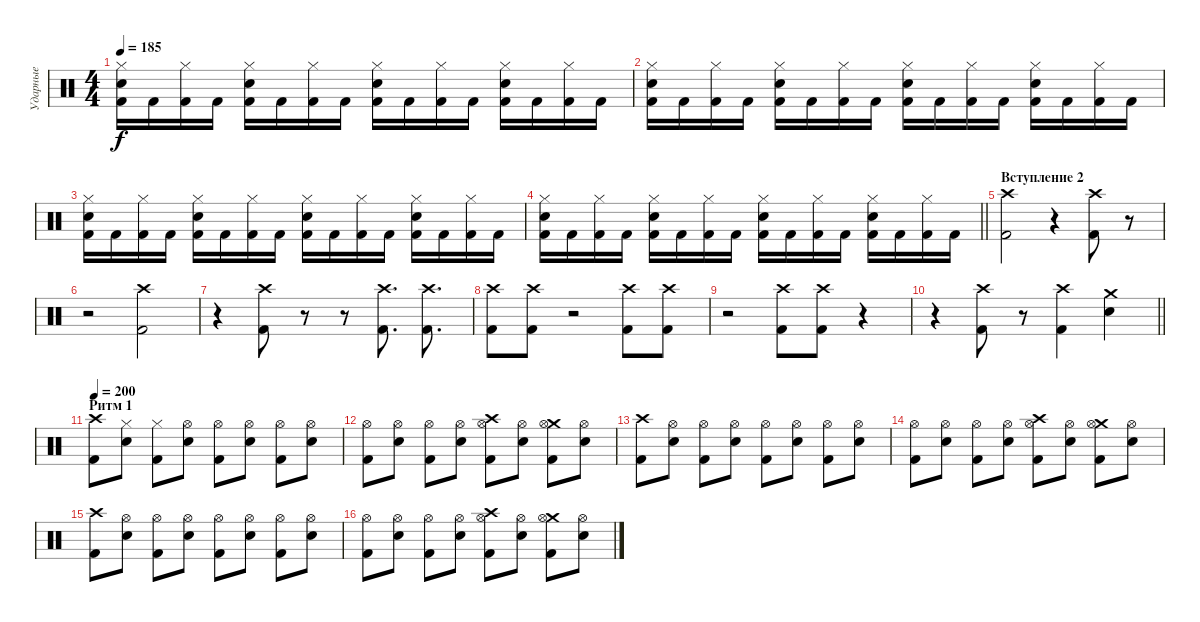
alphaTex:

\track ("Ударные" "Ударные") {instrument percussion}
\staff {score}
\articulation defaults
\ts (4 4)
\tempo 185
\clef neutral
\ks c
("Hi-Hat (closed)" "Snare (hit) 2" "Kick (hit) 2").16{dy f} "Kick (hit) 2".16 ("Hi-Hat (closed)" "Kick (hit) 2").16 "Kick (hit) 2".16 ("Hi-Hat (closed)" "Snare (hit) 2" "Kick (hit) 2").16 "Kick (hit) 2".16 ("Hi-Hat (closed)" "Kick (hit) 2").16 "Kick (hit) 2".16 ("Hi-Hat (closed)" "Snare (hit) 2" "Kick (hit) 2").16 "Kick (hit) 2".16 ("Hi-Hat (closed)" "Kick (hit) 2").16 "Kick (hit) 2".16 ("Hi-Hat (closed)" "Snare (hit) 2" "Kick (hit) 2").16 "Kick (hit) 2".16 ("Hi-Hat (closed)" "Kick (hit) 2").16 "Kick (hit) 2".16 |
("Hi-Hat (closed)" "Snare (hit) 2" "Kick (hit) 2").16 "Kick (hit) 2".16 ("Hi-Hat (closed)" "Kick (hit) 2").16 "Kick (hit) 2".16 ("Hi-Hat (closed)" "Snare (hit) 2" "Kick (hit) 2").16 "Kick (hit) 2".16 ("Hi-Hat (closed)" "Kick (hit) 2").16 "Kick (hit) 2".16 ("Hi-Hat (closed)" "Snare (hit) 2" "Kick (hit) 2").16 "Kick (hit) 2".16 ("Hi-Hat (closed)" "Kick (hit) 2").16 "Kick (hit) 2".16 ("Hi-Hat (closed)" "Snare (hit) 2" "Kick (hit) 2").16 "Kick (hit) 2".16 ("Hi-Hat (closed)" "Kick (hit) 2").16 "Kick (hit) 2".16 |
("Hi-Hat (closed)" "Snare (hit) 2" "Kick (hit) 2").16 "Kick (hit) 2".16 ("Hi-Hat (closed)" "Kick (hit) 2").16 "Kick (hit) 2".16 ("Hi-Hat (closed)" "Snare (hit) 2" "Kick (hit) 2").16 "Kick (hit) 2".16 ("Hi-Hat (closed)" "Kick (hit) 2").16 "Kick (hit) 2".16 ("Hi-Hat (closed)" "Snare (hit) 2" "Kick (hit) 2").16 "Kick (hit) 2".16 ("Hi-Hat (closed)" "Kick (hit) 2").16 "Kick (hit) 2".16 ("Hi-Hat (closed)" "Snare (hit) 2" "Kick (hit) 2").16 "Kick (hit) 2".16 ("Hi-Hat (closed)" "Kick (hit) 2").16 "Kick (hit) 2".16 |
\barLineRight lightlight
("Hi-Hat (closed)" "Snare (hit) 2" "Kick (hit) 2").16 "Kick (hit) 2".16 ("Hi-Hat (closed)" "Kick (hit) 2").16 "Kick (hit) 2".16 ("Hi-Hat (closed)" "Snare (hit) 2" "Kick (hit) 2").16 "Kick (hit) 2".16 ("Hi-Hat (closed)" "Kick (hit) 2").16 "Kick (hit) 2".16 ("Hi-Hat (closed)" "Snare (hit) 2" "Kick (hit) 2").16 "Kick (hit) 2".16 ("Hi-Hat (closed)" "Kick (hit) 2").16 "Kick (hit) 2".16 ("Hi-Hat (closed)" "Snare (hit) 2" "Kick (hit) 2").16 "Kick (hit) 2".16 ("Hi-Hat (closed)" "Kick (hit) 2").16 "Kick (hit) 2".16 |
\section ("" "Вступление 2")
("Kick (hit) 2" "Crash high (hit)").2 r.4 ("Kick (hit) 2" "Crash high (hit)").8 r.8 |
r.2 ("Crash high (hit)" "Kick (hit) 2").2 |
r.4 ("Crash high (hit)" "Kick (hit) 2").8 r.8 r.8 ("Crash high (hit)" "Kick (hit) 2").8{d} ("Crash high (hit)" "Kick (hit) 2").8{d} |
("Crash high (hit)" "Kick (hit) 2").8 ("Crash high (hit)" "Kick (hit) 2").8 r.2 ("Crash high (hit)" "Kick (hit) 2").8 ("Crash high (hit)" "Kick (hit) 2").8 |
r.2 ("Crash high (hit)" "Kick (hit) 2").8 ("Crash high (hit)" "Kick (hit) 2").8 r.4 |
\barLineRight lightlight
r.4 ("Crash high (hit)" "Kick (hit) 2").8 r.8 ("Crash high (hit)" "Kick (hit) 2").4 ("Crash medium (hit)" "Snare (hit) 2").4 |
\section ("" "Ритм 1")
\tempo 200
("Crash high (hit)" "Kick (hit) 2").8 ("Hi-Hat (closed)" "Snare (hit) 2").8 ("Hi-Hat (closed)" "Kick (hit) 2").8 ("Hi-Hat (open)" "Snare (hit) 2").8 ("Hi-Hat (open)" "Kick (hit) 2").8 ("Hi-Hat (open)" "Snare (hit) 2").8 ("Hi-Hat (open)" "Kick (hit) 2").8 ("Hi-Hat (open)" "Snare (hit) 2").8 |
("Hi-Hat (open)" "Kick (hit) 2").8 ("Hi-Hat (open)" "Snare (hit) 2").8 ("Hi-Hat (open)" "Kick (hit) 2").8 ("Hi-Hat (open)" "Snare (hit) 2").8 ("Crash high (hit)" "Hi-Hat (open)" "Kick (hit) 2").8 ("Hi-Hat (open)" "Snare (hit) 2").8 ("Crash medium (hit)" "Hi-Hat (open)" "Kick (hit) 2").8 ("Hi-Hat (open)" "Snare (hit) 2").8 |
("Crash high (hit)" "Kick (hit) 2").8 ("Hi-Hat (open)" "Snare (hit) 2").8 ("Hi-Hat (open)" "Kick (hit) 2").8 ("Hi-Hat (open)" "Snare (hit) 2").8 ("Hi-Hat (open)" "Kick (hit) 2").8 ("Hi-Hat (open)" "Snare (hit) 2").8 ("Hi-Hat (open)" "Kick (hit) 2").8 ("Hi-Hat (open)" "Snare (hit) 2").8 |
("Hi-Hat (open)" "Kick (hit) 2").8 ("Hi-Hat (open)" "Snare (hit) 2").8 ("Hi-Hat (open)" "Kick (hit) 2").8 ("Hi-Hat (open)" "Snare (hit) 2").8 ("Crash high (hit)" "Hi-Hat (open)" "Kick (hit) 2").8 ("Hi-Hat (open)" "Snare (hit) 2").8 ("Crash medium (hit)" "Hi-Hat (open)" "Kick (hit) 2").8 ("Hi-Hat (open)" "Snare (hit) 2").8 |
("Crash high (hit)" "Kick (hit) 2").8 ("Hi-Hat (open)" "Snare (hit) 2").8 ("Hi-Hat (open)" "Kick (hit) 2").8 ("Hi-Hat (open)" "Snare (hit) 2").8 ("Hi-Hat (open)" "Kick (hit) 2").8 ("Hi-Hat (open)" "Snare (hit) 2").8 ("Hi-Hat (open)" "Kick (hit) 2").8 ("Hi-Hat (open)" "Snare (hit) 2").8 |
("Hi-Hat (open)" "Kick (hit) 2").8 ("Hi-Hat (open)" "Snare (hit) 2").8 ("Hi-Hat (open)" "Kick (hit) 2").8 ("Hi-Hat (open)" "Snare (hit) 2").8 ("Crash high (hit)" "Hi-Hat (open)" "Kick (hit) 2").8 ("Hi-Hat (open)" "Snare (hit) 2").8 ("Crash medium (hit)" "Hi-Hat (open)" "Kick (hit) 2").8 ("Hi-Hat (open)" "Snare (hit) 2").8
